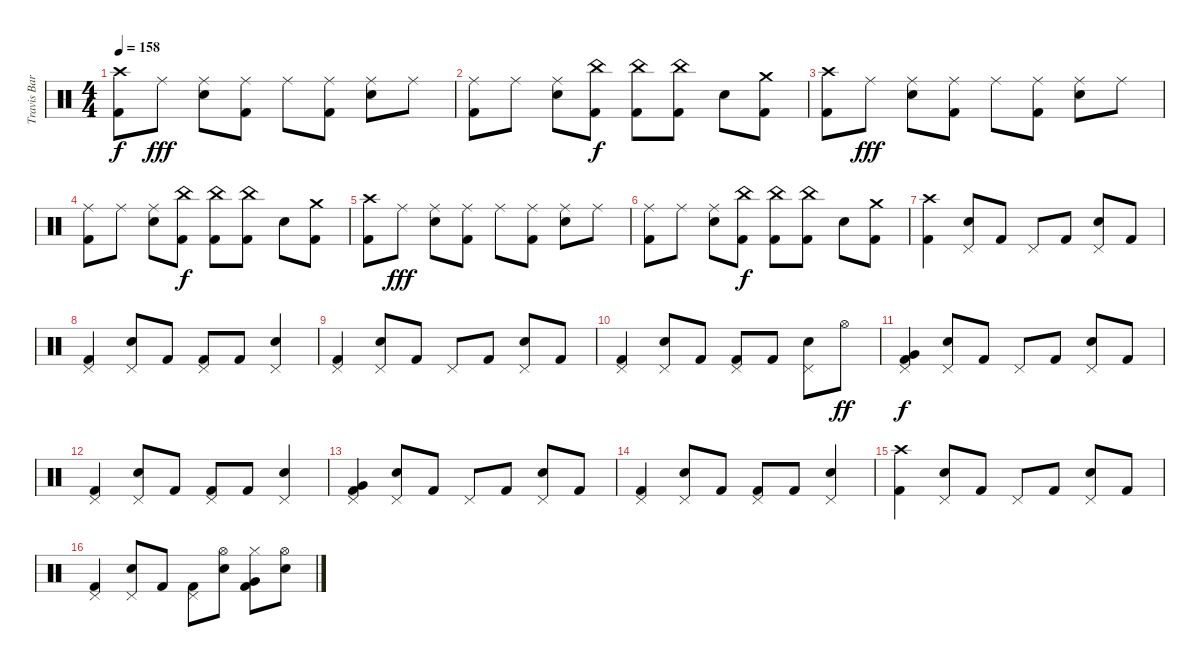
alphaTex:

\track ("Travis Barker - Drums" "Travis Bar") {instrument percussion}
\staff {score}
\articulation defaults
\ts (4 4)
\tempo 158
\clef neutral
\ks c
("Crash high (hit)" "Kick (hit) 2").8{dy f} "Ride (middle)".8{dy fff} ("Ride (middle)" "Electric Snare (hit)").8 ("Ride (middle)" "Kick (hit) 2").8 "Ride (middle)".8 ("Ride (middle)" "Kick (hit) 2").8 ("Ride (middle)" "Electric Snare (hit)").8 "Ride (middle)".8 |
("Ride (middle)" "Kick (hit) 2").8 "Ride (middle)".8 ("Ride (middle)" "Electric Snare (hit)").8 ("China (hit)" "Kick (hit) 2").8{dy f} ("China (hit)" "Kick (hit) 2").8 ("China (hit)" "Kick (hit) 2").8 "Electric Snare (hit)".8 ("Crash medium (hit)" "Kick (hit) 2").8 |
("Crash high (hit)" "Kick (hit) 2").8 "Ride (middle)".8{dy fff} ("Ride (middle)" "Electric Snare (hit)").8 ("Ride (middle)" "Kick (hit) 2").8 "Ride (middle)".8 ("Ride (middle)" "Kick (hit) 2").8 ("Ride (middle)" "Electric Snare (hit)").8 "Ride (middle)".8 |
("Ride (middle)" "Kick (hit) 2").8 "Ride (middle)".8 ("Ride (middle)" "Electric Snare (hit)").8 ("China (hit)" "Kick (hit) 2").8{dy f} ("China (hit)" "Kick (hit) 2").8 ("China (hit)" "Kick (hit) 2").8 "Electric Snare (hit)".8 ("Crash medium (hit)" "Kick (hit) 2").8 |
("Crash high (hit)" "Kick (hit) 2").8 "Ride (middle)".8{dy fff} ("Ride (middle)" "Electric Snare (hit)").8 ("Ride (middle)" "Kick (hit) 2").8 "Ride (middle)".8 ("Ride (middle)" "Kick (hit) 2").8 ("Ride (middle)" "Electric Snare (hit)").8 "Ride (middle)".8 |
("Ride (middle)" "Kick (hit) 2").8 "Ride (middle)".8 ("Ride (middle)" "Electric Snare (hit)").8 ("China (hit)" "Kick (hit) 2").8{dy f} ("China (hit)" "Kick (hit) 2").8 ("China (hit)" "Kick (hit) 2").8 "Electric Snare (hit)".8 ("Crash medium (hit)" "Kick (hit) 2").8 |
("Crash high (hit)" "Kick (hit) 2").4 ("Pedal Hi-Hat (hit)" "Electric Snare (hit)").8 "Kick (hit) 2".8 "Pedal Hi-Hat (hit)".8 "Kick (hit) 2".8 ("Pedal Hi-Hat (hit)" "Electric Snare (hit)").8 "Kick (hit) 2".8 |
("Pedal Hi-Hat (hit)" "Kick (hit) 2").4 ("Pedal Hi-Hat (hit)" "Electric Snare (hit)").8 "Kick (hit) 2".8 ("Pedal Hi-Hat (hit)" "Kick (hit) 2").8 "Kick (hit) 2".8 ("Pedal Hi-Hat (hit)" "Electric Snare (hit)").4 |
("Pedal Hi-Hat (hit)" "Kick (hit) 2").4 ("Pedal Hi-Hat (hit)" "Electric Snare (hit)").8 "Kick (hit) 2".8 "Pedal Hi-Hat (hit)".8 "Kick (hit) 2".8 ("Pedal Hi-Hat (hit)" "Electric Snare (hit)").8 "Kick (hit) 2".8 |
("Pedal Hi-Hat (hit)" "Kick (hit) 2").4 ("Pedal Hi-Hat (hit)" "Electric Snare (hit)").8 "Kick (hit) 2".8 ("Pedal Hi-Hat (hit)" "Kick (hit) 2").8 "Kick (hit) 2".8 ("Pedal Hi-Hat (hit)" "Electric Snare (hit)").8 "Hi-Hat (open)".8{dy ff} |
("Pedal Hi-Hat (hit)" "Very Low Tom (hit)" "Kick (hit) 2").4{dy f} ("Pedal Hi-Hat (hit)" "Electric Snare (hit)").8 "Kick (hit) 2".8 "Pedal Hi-Hat (hit)".8 "Kick (hit) 2".8 ("Pedal Hi-Hat (hit)" "Electric Snare (hit)").8 "Kick (hit) 2".8 |
("Pedal Hi-Hat (hit)" "Kick (hit) 2").4 ("Pedal Hi-Hat (hit)" "Electric Snare (hit)").8 "Kick (hit) 2".8 ("Pedal Hi-Hat (hit)" "Kick (hit) 2").8 "Kick (hit) 2".8 ("Pedal Hi-Hat (hit)" "Electric Snare (hit)").4 |
("Pedal Hi-Hat (hit)" "Very Low Tom (hit)" "Kick (hit) 2").4 ("Pedal Hi-Hat (hit)" "Electric Snare (hit)").8 "Kick (hit) 2".8 "Pedal Hi-Hat (hit)".8 "Kick (hit) 2".8 ("Pedal Hi-Hat (hit)" "Electric Snare (hit)").8 "Kick (hit) 2".8 |
("Pedal Hi-Hat (hit)" "Kick (hit) 2").4 ("Pedal Hi-Hat (hit)" "Electric Snare (hit)").8 "Kick (hit) 2".8 ("Pedal Hi-Hat (hit)" "Kick (hit) 2").8 "Kick (hit) 2".8 ("Pedal Hi-Hat (hit)" "Electric Snare (hit)").4 |
("Crash high (hit)" "Kick (hit) 2").4 ("Pedal Hi-Hat (hit)" "Electric Snare (hit)").8 "Kick (hit) 2".8 "Pedal Hi-Hat (hit)".8 "Kick (hit) 2".8 ("Pedal Hi-Hat (hit)" "Electric Snare (hit)").8 "Kick (hit) 2".8 |
("Pedal Hi-Hat (hit)" "Kick (hit) 2").4 ("Pedal Hi-Hat (hit)" "Electric Snare (hit)").8 "Kick (hit) 2".8 ("Pedal Hi-Hat (hit)" "Kick (hit) 2").8 ("Hi-Hat (open)" "Electric Snare (hit)").8 ("Hi-Hat (closed)" "Very Low Tom (hit)" "Kick (hit) 2").8 ("Hi-Hat (open)" "Electric Snare (hit)").8
